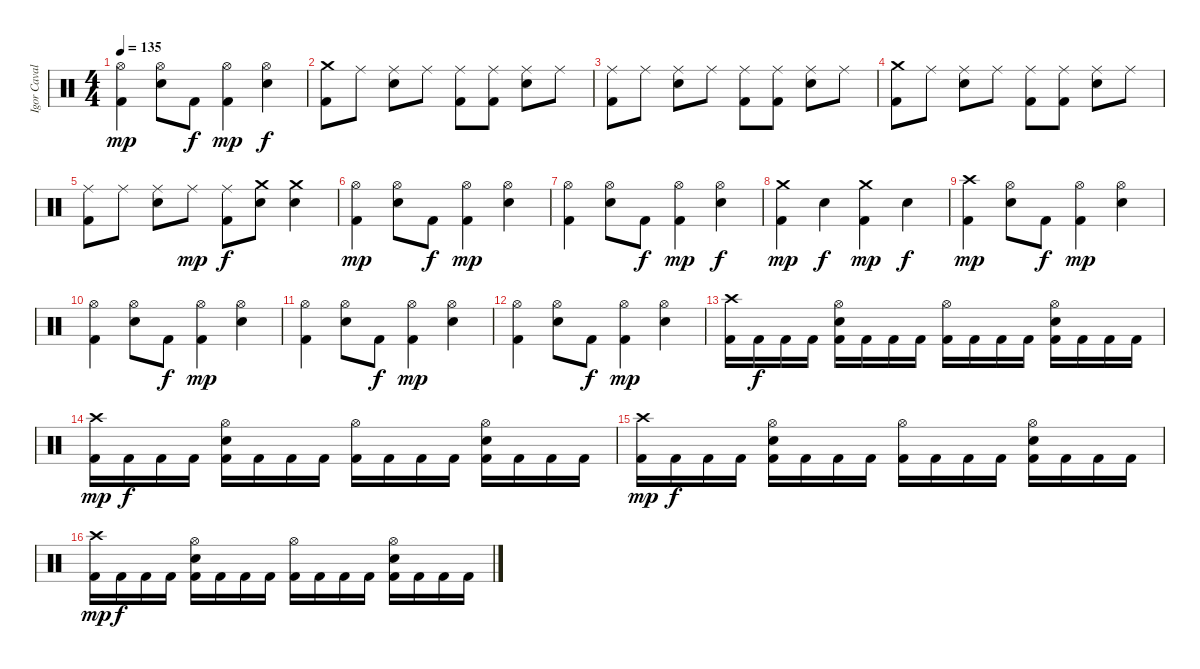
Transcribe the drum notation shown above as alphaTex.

\track ("Igor Cavalera" "Igor Caval") {instrument percussion}
\staff {score}
\articulation defaults
\ts (4 4)
\tempo 135
\clef neutral
\ks c
("Hi-Hat (open)" "Kick (hit) 2").4{dy mp} ("Hi-Hat (open)" "Electric Snare (hit)").8 "Kick (hit) 2".8{dy f} ("Hi-Hat (open)" "Kick (hit) 2").4{dy mp} ("Hi-Hat (open)" "Electric Snare (hit)").4{dy f} |
("Crash medium (hit)" "Kick (hit) 2").8 "Ride (middle)".8 ("Ride (middle)" "Snare (hit) 2").8 "Ride (middle)".8 ("Ride (middle)" "Kick (hit) 2").8 ("Ride (middle)" "Kick (hit) 2").8 ("Ride (middle)" "Snare (hit) 2").8 "Ride (middle)".8 |
("Ride (middle)" "Kick (hit) 2").8 "Ride (middle)".8 ("Ride (middle)" "Snare (hit) 2").8 "Ride (middle)".8 ("Ride (middle)" "Kick (hit) 2").8 ("Ride (middle)" "Kick (hit) 2").8 ("Ride (middle)" "Snare (hit) 2").8 "Ride (middle)".8 |
("Crash medium (hit)" "Kick (hit) 2").8 "Ride (middle)".8 ("Ride (middle)" "Snare (hit) 2").8 "Ride (middle)".8 ("Ride (middle)" "Kick (hit) 2").8 ("Ride (middle)" "Kick (hit) 2").8 ("Ride (middle)" "Snare (hit) 2").8 "Ride (middle)".8 |
("Ride (middle)" "Kick (hit) 2").8 "Ride (middle)".8 ("Ride (middle)" "Electric Snare (hit)").8 "Ride (middle)".8{dy mp} ("Ride (middle)" "Kick (hit) 2").8{dy f} ("Crash medium (hit)" "Electric Snare (hit)").8 ("Crash medium (hit)" "Electric Snare (hit)").4 |
("Hi-Hat (open)" "Kick (hit) 2").4{dy mp} ("Hi-Hat (open)" "Electric Snare (hit)").8 "Kick (hit) 2".8{dy f} ("Hi-Hat (open)" "Kick (hit) 2").4{dy mp} ("Hi-Hat (open)" "Electric Snare (hit)").4 |
("Hi-Hat (open)" "Kick (hit) 2").4 ("Hi-Hat (open)" "Electric Snare (hit)").8 "Kick (hit) 2".8{dy f} ("Hi-Hat (open)" "Kick (hit) 2").4{dy mp} ("Hi-Hat (open)" "Snare (hit) 2").4{dy f} |
("Crash medium (hit)" "Kick (hit) 2").4{dy mp} "Electric Snare (hit)".4{dy f} ("Crash medium (hit)" "Kick (hit) 2").4{dy mp} "Electric Snare (hit)".4{dy f} |
("Crash high (hit)" "Kick (hit) 2").4{dy mp} ("Hi-Hat (open)" "Electric Snare (hit)").8 "Kick (hit) 2".8{dy f} ("Hi-Hat (open)" "Kick (hit) 2").4{dy mp} ("Hi-Hat (open)" "Electric Snare (hit)").4 |
("Hi-Hat (open)" "Kick (hit) 2").4 ("Hi-Hat (open)" "Electric Snare (hit)").8 "Kick (hit) 2".8{dy f} ("Hi-Hat (open)" "Kick (hit) 2").4{dy mp} ("Hi-Hat (open)" "Electric Snare (hit)").4 |
("Hi-Hat (open)" "Kick (hit) 2").4 ("Hi-Hat (open)" "Electric Snare (hit)").8 "Kick (hit) 2".8{dy f} ("Hi-Hat (open)" "Kick (hit) 2").4{dy mp} ("Hi-Hat (open)" "Electric Snare (hit)").4 |
("Hi-Hat (open)" "Kick (hit) 2").4 ("Hi-Hat (open)" "Electric Snare (hit)").8 "Kick (hit) 2".8{dy f} ("Hi-Hat (open)" "Kick (hit) 2").4{dy mp} ("Hi-Hat (open)" "Electric Snare (hit)").4 |
("Crash high (hit)" "Kick (hit) 2").16 "Kick (hit) 2".16{dy f} "Kick (hit) 2".16 "Kick (hit) 2".16 ("Hi-Hat (open)" "Electric Snare (hit)" "Kick (hit) 2").16 "Kick (hit) 2".16 "Kick (hit) 2".16 "Kick (hit) 2".16 ("Hi-Hat (open)" "Kick (hit) 2").16 "Kick (hit) 2".16 "Kick (hit) 2".16 "Kick (hit) 2".16 ("Hi-Hat (open)" "Electric Snare (hit)" "Kick (hit) 2").16 "Kick (hit) 2".16 "Kick (hit) 2".16 "Kick (hit) 2".16 |
("Crash high (hit)" "Kick (hit) 2").16{dy mp} "Kick (hit) 2".16{dy f} "Kick (hit) 2".16 "Kick (hit) 2".16 ("Hi-Hat (open)" "Electric Snare (hit)" "Kick (hit) 2").16 "Kick (hit) 2".16 "Kick (hit) 2".16 "Kick (hit) 2".16 ("Hi-Hat (open)" "Kick (hit) 2").16 "Kick (hit) 2".16 "Kick (hit) 2".16 "Kick (hit) 2".16 ("Hi-Hat (open)" "Electric Snare (hit)" "Kick (hit) 2").16 "Kick (hit) 2".16 "Kick (hit) 2".16 "Kick (hit) 2".16 |
("Crash high (hit)" "Kick (hit) 2").16{dy mp} "Kick (hit) 2".16{dy f} "Kick (hit) 2".16 "Kick (hit) 2".16 ("Hi-Hat (open)" "Electric Snare (hit)" "Kick (hit) 2").16 "Kick (hit) 2".16 "Kick (hit) 2".16 "Kick (hit) 2".16 ("Hi-Hat (open)" "Kick (hit) 2").16 "Kick (hit) 2".16 "Kick (hit) 2".16 "Kick (hit) 2".16 ("Hi-Hat (open)" "Electric Snare (hit)" "Kick (hit) 2").16 "Kick (hit) 2".16 "Kick (hit) 2".16 "Kick (hit) 2".16 |
("Crash high (hit)" "Kick (hit) 2").16{dy mp} "Kick (hit) 2".16{dy f} "Kick (hit) 2".16 "Kick (hit) 2".16 ("Hi-Hat (open)" "Electric Snare (hit)" "Kick (hit) 2").16 "Kick (hit) 2".16 "Kick (hit) 2".16 "Kick (hit) 2".16 ("Hi-Hat (open)" "Kick (hit) 2").16 "Kick (hit) 2".16 "Kick (hit) 2".16 "Kick (hit) 2".16 ("Hi-Hat (open)" "Electric Snare (hit)" "Kick (hit) 2").16 "Kick (hit) 2".16 "Kick (hit) 2".16 "Kick (hit) 2".16
